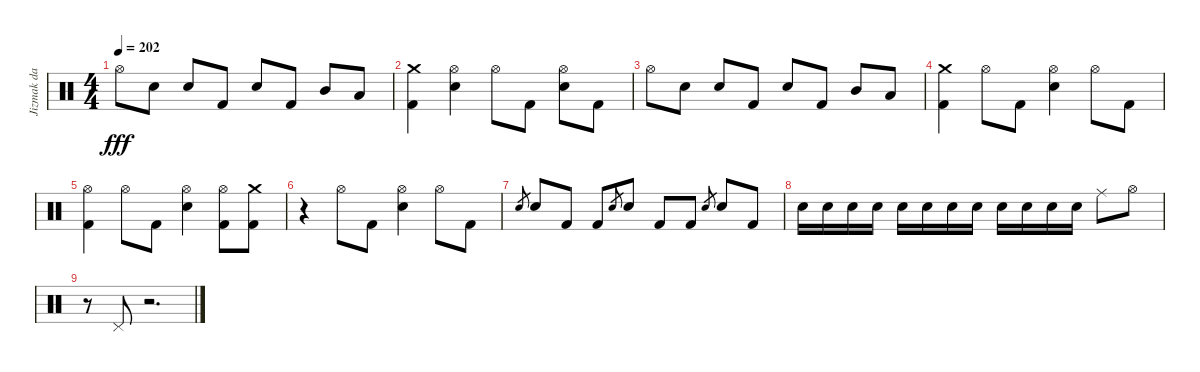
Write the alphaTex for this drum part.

\track ("Jizmak da Gusha" "Jizmak da ") {instrument percussion}
\staff {score}
\articulation defaults
\ts (4 4)
\tempo 202
\clef neutral
\ks c "Hi-Hat (open)".8{dy fff} "Electric Snare (hit)".8 "Electric Snare (hit)".8 "Kick (hit) 2".8 "Electric Snare (hit)".8 "Kick (hit) 2".8 "Mid Tom (hit)".8 "Low Tom (hit)".8
|
("Crash medium (hit)" "Kick (hit) 2").4 ("Hi-Hat (open)" "Electric Snare (hit)").4 "Hi-Hat (open)".8 "Kick (hit) 2".8 ("Hi-Hat (open)" "Electric Snare (hit)").8 "Kick (hit) 2".8 |
"Hi-Hat (open)".8 "Electric Snare (hit)".8 "Electric Snare (hit)".8 "Kick (hit) 2".8 "Electric Snare (hit)".8 "Kick (hit) 2".8 "Mid Tom (hit)".8 "Low Tom (hit)".8 |
("Crash medium (hit)" "Kick (hit) 2").4 "Hi-Hat (open)".8 "Kick (hit) 2".8 ("Hi-Hat (open)" "Electric Snare (hit)").4 "Hi-Hat (open)".8 "Kick (hit) 2".8 |
("Hi-Hat (open)" "Kick (hit) 2").4 "Hi-Hat (open)".8 "Kick (hit) 2".8 ("Hi-Hat (open)" "Electric Snare (hit)").4 ("Hi-Hat (open)" "Kick (hit) 2").8 ("Crash medium (hit)" "Kick (hit) 2").8 |
r.4 "Hi-Hat (open)".8 "Kick (hit) 2".8 ("Hi-Hat (open)" "Electric Snare (hit)").4 "Hi-Hat (open)".8 "Kick (hit) 2".8 |
"Electric Snare (hit)".8{gr} "Electric Snare (hit)".8 "Kick (hit) 2".8 "Kick (hit) 2".8 "Electric Snare (hit)".8{gr} "Electric Snare (hit)".8 "Kick (hit) 2".8 "Kick (hit) 2".8 "Electric Snare (hit)".8{gr} "Electric Snare (hit)".8 "Kick (hit) 2".8 |
"Electric Snare (hit)".16 "Electric Snare (hit)".16 "Electric Snare (hit)".16 "Electric Snare (hit)".16 "Electric Snare (hit)".16 "Electric Snare (hit)".16 "Electric Snare (hit)".16 "Electric Snare (hit)".16 "Electric Snare (hit)".16 "Electric Snare (hit)".16 "Electric Snare (hit)".16 "Electric Snare (hit)".16 "Ride (middle)".8 "Hi-Hat (open)".8 |
r.8 "Pedal Hi-Hat (hit)".8 r.2{d}
